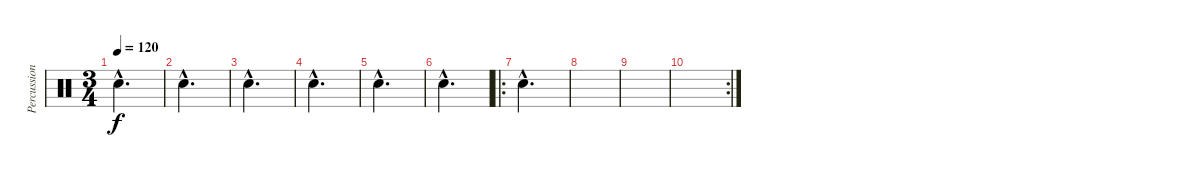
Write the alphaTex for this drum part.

\track ("Percussions" "Percussion") {instrument percussion}
\staff {score}
\articulation defaults
\ts (3 4)
\tempo 120
\clef neutral
\ks c "Metronome (bell)"{hac}.2{d dy f}
|
"Metronome (bell)"{hac}.2{d} |
"Metronome (bell)"{hac}.2{d} |
"Metronome (bell)"{hac}.2{d} |
"Metronome (bell)"{hac}.2{d} |
"Metronome (bell)"{hac}.2{d} |
\ro "Metronome (bell)"{hac}.2{d}
|
|
|
\rc 2
